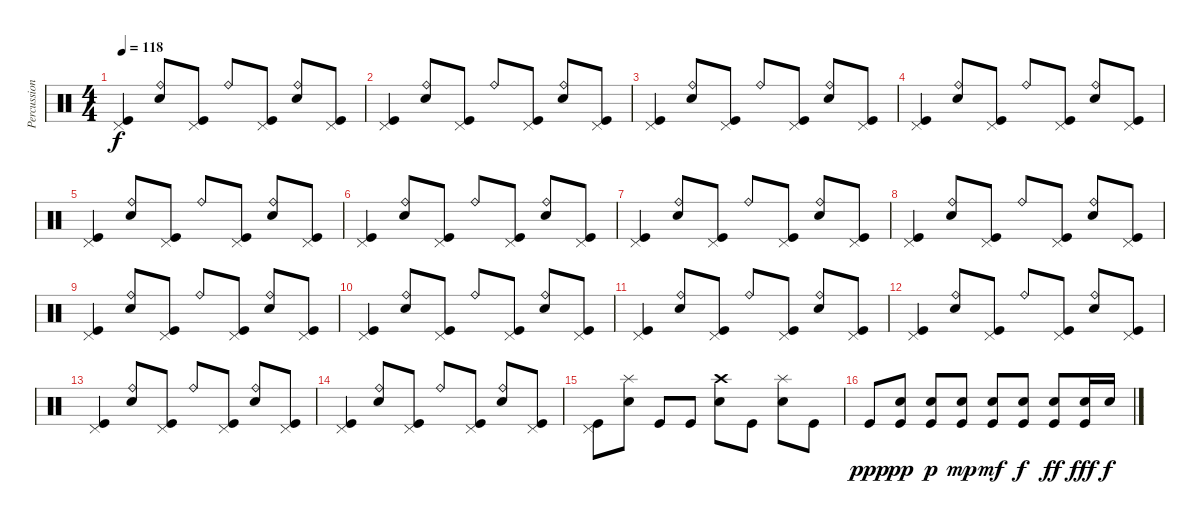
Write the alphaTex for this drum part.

\track ("Percussions" "Percussion") {instrument percussion}
\staff {score}
\articulation defaults
\ts (4 4)
\tempo 118
\clef neutral
\ks c
("Pedal Hi-Hat (hit)" "Kick (hit)").4{dy f} ("Ride (bell)" "Snare (hit) 2").8 ("Pedal Hi-Hat (hit)" "Kick (hit)").8 "Ride (bell)".8 ("Pedal Hi-Hat (hit)" "Kick (hit)").8 ("Ride (bell)" "Snare (hit) 2").8 ("Pedal Hi-Hat (hit)" "Kick (hit)").8 |
("Pedal Hi-Hat (hit)" "Kick (hit)").4 ("Ride (bell)" "Snare (hit) 2").8 ("Pedal Hi-Hat (hit)" "Kick (hit)").8 "Ride (bell)".8 ("Pedal Hi-Hat (hit)" "Kick (hit)").8 ("Ride (bell)" "Snare (hit) 2").8 ("Pedal Hi-Hat (hit)" "Kick (hit)").8 |
("Pedal Hi-Hat (hit)" "Kick (hit)").4 ("Ride (bell)" "Snare (hit) 2").8 ("Pedal Hi-Hat (hit)" "Kick (hit)").8 "Ride (bell)".8 ("Pedal Hi-Hat (hit)" "Kick (hit)").8 ("Ride (bell)" "Snare (hit) 2").8 ("Pedal Hi-Hat (hit)" "Kick (hit)").8 |
("Pedal Hi-Hat (hit)" "Kick (hit)").4 ("Ride (bell)" "Snare (hit) 2").8 ("Pedal Hi-Hat (hit)" "Kick (hit)").8 "Ride (bell)".8 ("Pedal Hi-Hat (hit)" "Kick (hit)").8 ("Ride (bell)" "Snare (hit) 2").8 ("Pedal Hi-Hat (hit)" "Kick (hit)").8 |
("Pedal Hi-Hat (hit)" "Kick (hit)").4 ("Ride (bell)" "Snare (hit) 2").8 ("Pedal Hi-Hat (hit)" "Kick (hit)").8 "Ride (bell)".8 ("Pedal Hi-Hat (hit)" "Kick (hit)").8 ("Ride (bell)" "Snare (hit) 2").8 ("Pedal Hi-Hat (hit)" "Kick (hit)").8 |
("Pedal Hi-Hat (hit)" "Kick (hit)").4 ("Ride (bell)" "Snare (hit) 2").8 ("Pedal Hi-Hat (hit)" "Kick (hit)").8 "Ride (bell)".8 ("Pedal Hi-Hat (hit)" "Kick (hit)").8 ("Ride (bell)" "Snare (hit) 2").8 ("Pedal Hi-Hat (hit)" "Kick (hit)").8 |
("Pedal Hi-Hat (hit)" "Kick (hit)").4 ("Ride (bell)" "Snare (hit) 2").8 ("Pedal Hi-Hat (hit)" "Kick (hit)").8 "Ride (bell)".8 ("Pedal Hi-Hat (hit)" "Kick (hit)").8 ("Ride (bell)" "Snare (hit) 2").8 ("Pedal Hi-Hat (hit)" "Kick (hit)").8 |
("Pedal Hi-Hat (hit)" "Kick (hit)").4 ("Ride (bell)" "Snare (hit) 2").8 ("Pedal Hi-Hat (hit)" "Kick (hit)").8 "Ride (bell)".8 ("Pedal Hi-Hat (hit)" "Kick (hit)").8 ("Ride (bell)" "Snare (hit) 2").8 ("Pedal Hi-Hat (hit)" "Kick (hit)").8 |
("Pedal Hi-Hat (hit)" "Kick (hit)").4 ("Ride (bell)" "Snare (hit) 2").8 ("Pedal Hi-Hat (hit)" "Kick (hit)").8 "Ride (bell)".8 ("Pedal Hi-Hat (hit)" "Kick (hit)").8 ("Ride (bell)" "Snare (hit) 2").8 ("Pedal Hi-Hat (hit)" "Kick (hit)").8 |
("Pedal Hi-Hat (hit)" "Kick (hit)").4 ("Ride (bell)" "Snare (hit) 2").8 ("Pedal Hi-Hat (hit)" "Kick (hit)").8 "Ride (bell)".8 ("Pedal Hi-Hat (hit)" "Kick (hit)").8 ("Ride (bell)" "Snare (hit) 2").8 ("Pedal Hi-Hat (hit)" "Kick (hit)").8 |
("Pedal Hi-Hat (hit)" "Kick (hit)").4 ("Ride (bell)" "Snare (hit) 2").8 ("Pedal Hi-Hat (hit)" "Kick (hit)").8 "Ride (bell)".8 ("Pedal Hi-Hat (hit)" "Kick (hit)").8 ("Ride (bell)" "Snare (hit) 2").8 ("Pedal Hi-Hat (hit)" "Kick (hit)").8 |
("Pedal Hi-Hat (hit)" "Kick (hit)").4 ("Ride (bell)" "Snare (hit) 2").8 ("Pedal Hi-Hat (hit)" "Kick (hit)").8 "Ride (bell)".8 ("Pedal Hi-Hat (hit)" "Kick (hit)").8 ("Ride (bell)" "Snare (hit) 2").8 ("Pedal Hi-Hat (hit)" "Kick (hit)").8 |
("Pedal Hi-Hat (hit)" "Kick (hit)").4 ("Ride (bell)" "Snare (hit) 2").8 ("Pedal Hi-Hat (hit)" "Kick (hit)").8 "Ride (bell)".8 ("Pedal Hi-Hat (hit)" "Kick (hit)").8 ("Ride (bell)" "Snare (hit) 2").8 ("Pedal Hi-Hat (hit)" "Kick (hit)").8 |
("Pedal Hi-Hat (hit)" "Kick (hit)").4 ("Ride (bell)" "Snare (hit) 2").8 ("Pedal Hi-Hat (hit)" "Kick (hit)").8 "Ride (bell)".8 ("Pedal Hi-Hat (hit)" "Kick (hit)").8 ("Ride (bell)" "Snare (hit) 2").8 ("Pedal Hi-Hat (hit)" "Kick (hit)").8 |
("Pedal Hi-Hat (hit)" "Kick (hit)").8 ("Splash (hit)" "Snare (hit) 2").8 "Kick (hit)".8 "Kick (hit)".8 ("Crash high (hit)" "Snare (hit) 2").8 "Kick (hit)".8 ("Splash (hit)" "Snare (hit) 2").8 "Kick (hit)".8 |
"Kick (hit)".8{dy ppp} ("Snare (hit) 2" "Kick (hit)").8{dy pp} ("Snare (hit) 2" "Kick (hit)").8{dy p} ("Snare (hit) 2" "Kick (hit)").8{dy mp} ("Snare (hit) 2" "Kick (hit)").8{dy mf} ("Snare (hit) 2" "Kick (hit)").8{dy f} ("Snare (hit) 2" "Kick (hit)").8{dy ff} ("Snare (hit) 2" "Kick (hit)").16{dy fff} "Snare (hit) 2".16{dy f}
